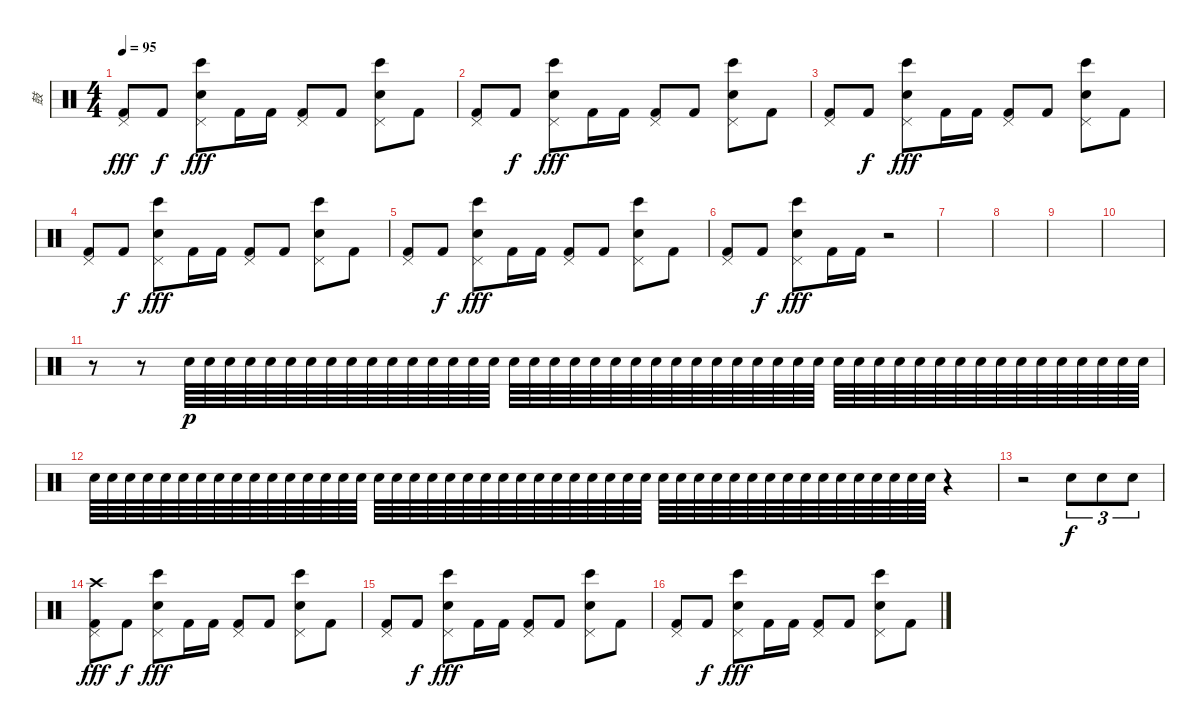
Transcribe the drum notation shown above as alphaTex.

\track ("鼓" "鼓") {instrument percussion}
\staff {score}
\articulation defaults
\ts (4 4)
\tempo 95
\clef neutral
\ks c
("Pedal Hi-Hat (hit)" "Kick (hit) 2").8{dy fff} "Kick (hit) 2".8{dy f} ("Pedal Hi-Hat (hit)" "Electric Snare (hit)" "Bongo High (hit)").8{dy fff} "Kick (hit) 2".16 "Kick (hit) 2".16 ("Pedal Hi-Hat (hit)" "Kick (hit) 2").8 "Kick (hit) 2".8 ("Pedal Hi-Hat (hit)" "Electric Snare (hit)" "Bongo High (hit)").8 "Kick (hit) 2".8 |
("Pedal Hi-Hat (hit)" "Kick (hit) 2").8 "Kick (hit) 2".8{dy f} ("Pedal Hi-Hat (hit)" "Electric Snare (hit)" "Bongo High (hit)").8{dy fff} "Kick (hit) 2".16 "Kick (hit) 2".16 ("Pedal Hi-Hat (hit)" "Kick (hit) 2").8 "Kick (hit) 2".8 ("Pedal Hi-Hat (hit)" "Electric Snare (hit)" "Bongo High (hit)").8 "Kick (hit) 2".8 |
("Pedal Hi-Hat (hit)" "Kick (hit) 2").8 "Kick (hit) 2".8{dy f} ("Pedal Hi-Hat (hit)" "Electric Snare (hit)" "Bongo High (hit)").8{dy fff} "Kick (hit) 2".16 "Kick (hit) 2".16 ("Pedal Hi-Hat (hit)" "Kick (hit) 2").8 "Kick (hit) 2".8 ("Pedal Hi-Hat (hit)" "Electric Snare (hit)" "Bongo High (hit)").8 "Kick (hit) 2".8 |
("Pedal Hi-Hat (hit)" "Kick (hit) 2").8 "Kick (hit) 2".8{dy f} ("Pedal Hi-Hat (hit)" "Electric Snare (hit)" "Bongo High (hit)").8{dy fff} "Kick (hit) 2".16 "Kick (hit) 2".16 ("Pedal Hi-Hat (hit)" "Kick (hit) 2").8 "Kick (hit) 2".8 ("Pedal Hi-Hat (hit)" "Electric Snare (hit)" "Bongo High (hit)").8 "Kick (hit) 2".8 |
("Pedal Hi-Hat (hit)" "Kick (hit) 2").8 "Kick (hit) 2".8{dy f} ("Pedal Hi-Hat (hit)" "Electric Snare (hit)" "Bongo High (hit)").8{dy fff} "Kick (hit) 2".16 "Kick (hit) 2".16 ("Pedal Hi-Hat (hit)" "Kick (hit) 2").8 "Kick (hit) 2".8 ("Pedal Hi-Hat (hit)" "Electric Snare (hit)" "Bongo High (hit)").8 "Kick (hit) 2".8 |
("Pedal Hi-Hat (hit)" "Kick (hit) 2").8 "Kick (hit) 2".8{dy f} ("Pedal Hi-Hat (hit)" "Electric Snare (hit)" "Bongo High (hit)").8{dy fff} "Kick (hit) 2".16 "Kick (hit) 2".16 r.2 |
|
|
|
|
r.8 r.8 "Electric Snare (hit)".64{dy p} "Electric Snare (hit)".64 "Electric Snare (hit)".64 "Electric Snare (hit)".64 "Electric Snare (hit)".64 "Electric Snare (hit)".64 "Electric Snare (hit)".64 "Electric Snare (hit)".64 "Electric Snare (hit)".64 "Electric Snare (hit)".64 "Electric Snare (hit)".64 "Electric Snare (hit)".64 "Electric Snare (hit)".64 "Electric Snare (hit)".64 "Electric Snare (hit)".64 "Electric Snare (hit)".64 "Electric Snare (hit)".64 "Electric Snare (hit)".64 "Electric Snare (hit)".64 "Electric Snare (hit)".64 "Electric Snare (hit)".64 "Electric Snare (hit)".64 "Electric Snare (hit)".64 "Electric Snare (hit)".64 "Electric Snare (hit)".64 "Electric Snare (hit)".64 "Electric Snare (hit)".64 "Electric Snare (hit)".64 "Electric Snare (hit)".64 "Electric Snare (hit)".64 "Electric Snare (hit)".64 "Electric Snare (hit)".64 "Electric Snare (hit)".64 "Electric Snare (hit)".64 "Electric Snare (hit)".64 "Electric Snare (hit)".64 "Electric Snare (hit)".64 "Electric Snare (hit)".64 "Electric Snare (hit)".64 "Electric Snare (hit)".64 "Electric Snare (hit)".64 "Electric Snare (hit)".64 "Electric Snare (hit)".64 "Electric Snare (hit)".64 "Electric Snare (hit)".64 "Electric Snare (hit)".64 "Electric Snare (hit)".64 "Electric Snare (hit)".64 |
"Electric Snare (hit)".64 "Electric Snare (hit)".64 "Electric Snare (hit)".64 "Electric Snare (hit)".64 "Electric Snare (hit)".64 "Electric Snare (hit)".64 "Electric Snare (hit)".64 "Electric Snare (hit)".64 "Electric Snare (hit)".64 "Electric Snare (hit)".64 "Electric Snare (hit)".64 "Electric Snare (hit)".64 "Electric Snare (hit)".64 "Electric Snare (hit)".64 "Electric Snare (hit)".64 "Electric Snare (hit)".64 "Electric Snare (hit)".64 "Electric Snare (hit)".64 "Electric Snare (hit)".64 "Electric Snare (hit)".64 "Electric Snare (hit)".64 "Electric Snare (hit)".64 "Electric Snare (hit)".64 "Electric Snare (hit)".64 "Electric Snare (hit)".64 "Electric Snare (hit)".64 "Electric Snare (hit)".64 "Electric Snare (hit)".64 "Electric Snare (hit)".64 "Electric Snare (hit)".64 "Electric Snare (hit)".64 "Electric Snare (hit)".64 "Electric Snare (hit)".64 "Electric Snare (hit)".64 "Electric Snare (hit)".64 "Electric Snare (hit)".64 "Electric Snare (hit)".64 "Electric Snare (hit)".64 "Electric Snare (hit)".64 "Electric Snare (hit)".64 "Electric Snare (hit)".64 "Electric Snare (hit)".64 "Electric Snare (hit)".64 "Electric Snare (hit)".64 "Electric Snare (hit)".64 "Electric Snare (hit)".64 "Electric Snare (hit)".64 "Electric Snare (hit)".64 r.4 |
r.2 "Electric Snare (hit)".8{tu (3 2) dy f} "Electric Snare (hit)".8{tu (3 2)} "Electric Snare (hit)".8{tu (3 2)} |
("Pedal Hi-Hat (hit)" "Kick (hit) 2" "Crash high (hit)").8{dy fff} "Kick (hit) 2".8{dy f} ("Pedal Hi-Hat (hit)" "Electric Snare (hit)" "Bongo High (hit)").8{dy fff} "Kick (hit) 2".16 "Kick (hit) 2".16 ("Pedal Hi-Hat (hit)" "Kick (hit) 2").8 "Kick (hit) 2".8 ("Pedal Hi-Hat (hit)" "Electric Snare (hit)" "Bongo High (hit)").8 "Kick (hit) 2".8 |
("Pedal Hi-Hat (hit)" "Kick (hit) 2").8 "Kick (hit) 2".8{dy f} ("Pedal Hi-Hat (hit)" "Electric Snare (hit)" "Bongo High (hit)").8{dy fff} "Kick (hit) 2".16 "Kick (hit) 2".16 ("Pedal Hi-Hat (hit)" "Kick (hit) 2").8 "Kick (hit) 2".8 ("Pedal Hi-Hat (hit)" "Electric Snare (hit)" "Bongo High (hit)").8 "Kick (hit) 2".8 |
("Pedal Hi-Hat (hit)" "Kick (hit) 2").8 "Kick (hit) 2".8{dy f} ("Pedal Hi-Hat (hit)" "Electric Snare (hit)" "Bongo High (hit)").8{dy fff} "Kick (hit) 2".16 "Kick (hit) 2".16 ("Pedal Hi-Hat (hit)" "Kick (hit) 2").8 "Kick (hit) 2".8 ("Pedal Hi-Hat (hit)" "Electric Snare (hit)" "Bongo High (hit)").8 "Kick (hit) 2".8
